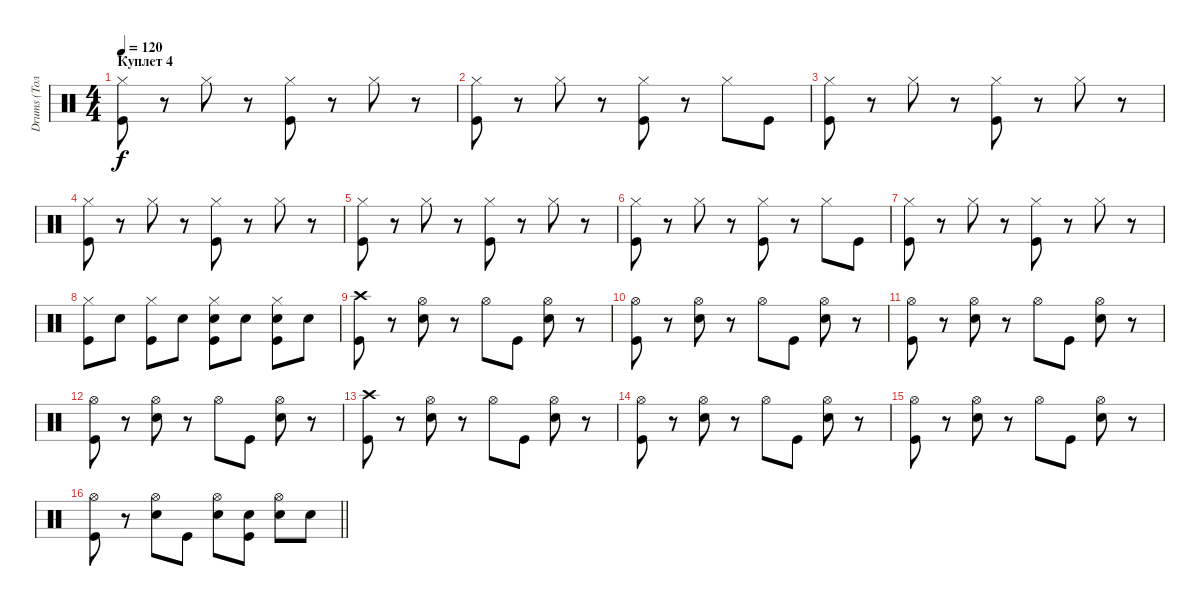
\track ("Drums (Толян)" "Drums (Тол") {instrument percussion}
\staff {score}
\articulation defaults
\ts (4 4)
\section ("" "Куплет 4")
\tempo 120
\clef neutral
\ks c
("Hi-Hat (closed)" "Kick (hit)").8{dy f} r.8 "Hi-Hat (closed)".8 r.8 ("Hi-Hat (closed)" "Kick (hit)").8 r.8 "Hi-Hat (closed)".8 r.8 |
("Hi-Hat (closed)" "Kick (hit)").8 r.8 "Hi-Hat (closed)".8 r.8 ("Hi-Hat (closed)" "Kick (hit)").8 r.8 "Hi-Hat (closed)".8 "Kick (hit)".8 |
("Hi-Hat (closed)" "Kick (hit)").8 r.8 "Hi-Hat (closed)".8 r.8 ("Hi-Hat (closed)" "Kick (hit)").8 r.8 "Hi-Hat (closed)".8 r.8 |
("Hi-Hat (closed)" "Kick (hit)").8 r.8 "Hi-Hat (closed)".8 r.8 ("Hi-Hat (closed)" "Kick (hit)").8 r.8 "Hi-Hat (closed)".8 r.8 |
("Hi-Hat (closed)" "Kick (hit)").8 r.8 "Hi-Hat (closed)".8 r.8 ("Hi-Hat (closed)" "Kick (hit)").8 r.8 "Hi-Hat (closed)".8 r.8 |
("Hi-Hat (closed)" "Kick (hit)").8 r.8 "Hi-Hat (closed)".8 r.8 ("Hi-Hat (closed)" "Kick (hit)").8 r.8 "Hi-Hat (closed)".8 "Kick (hit)".8 |
("Hi-Hat (closed)" "Kick (hit)").8 r.8 "Hi-Hat (closed)".8 r.8 ("Hi-Hat (closed)" "Kick (hit)").8 r.8 "Hi-Hat (closed)".8 r.8 |
("Hi-Hat (closed)" "Kick (hit)").8 "Electric Snare (hit)".8 ("Hi-Hat (closed)" "Kick (hit)").8 "Electric Snare (hit)".8 ("Hi-Hat (closed)" "Electric Snare (hit)" "Kick (hit)").8 "Electric Snare (hit)".8 ("Hi-Hat (closed)" "Electric Snare (hit)" "Kick (hit)").8 "Electric Snare (hit)".8 |
("Crash high (hit)" "Kick (hit)").8 r.8 ("Hi-Hat (open)" "Electric Snare (hit)").8 r.8 "Hi-Hat (open)".8 "Kick (hit)".8 ("Hi-Hat (open)" "Electric Snare (hit)").8 r.8 |
("Hi-Hat (open)" "Kick (hit)").8 r.8 ("Hi-Hat (open)" "Electric Snare (hit)").8 r.8 "Hi-Hat (open)".8 "Kick (hit)".8 ("Hi-Hat (open)" "Electric Snare (hit)").8 r.8 |
("Hi-Hat (open)" "Kick (hit)").8 r.8 ("Hi-Hat (open)" "Electric Snare (hit)").8 r.8 "Hi-Hat (open)".8 "Kick (hit)".8 ("Hi-Hat (open)" "Electric Snare (hit)").8 r.8 |
("Hi-Hat (open)" "Kick (hit)").8 r.8 ("Hi-Hat (open)" "Electric Snare (hit)").8 r.8 "Hi-Hat (open)".8 "Kick (hit)".8 ("Hi-Hat (open)" "Electric Snare (hit)").8 r.8 |
("Crash high (hit)" "Kick (hit)").8 r.8 ("Hi-Hat (open)" "Electric Snare (hit)").8 r.8 "Hi-Hat (open)".8 "Kick (hit)".8 ("Hi-Hat (open)" "Electric Snare (hit)").8 r.8 |
("Hi-Hat (open)" "Kick (hit)").8 r.8 ("Hi-Hat (open)" "Electric Snare (hit)").8 r.8 "Hi-Hat (open)".8 "Kick (hit)".8 ("Hi-Hat (open)" "Electric Snare (hit)").8 r.8 |
("Hi-Hat (open)" "Kick (hit)").8 r.8 ("Hi-Hat (open)" "Electric Snare (hit)").8 r.8 "Hi-Hat (open)".8 "Kick (hit)".8 ("Hi-Hat (open)" "Electric Snare (hit)").8 r.8 |
\barLineRight lightlight
("Hi-Hat (open)" "Kick (hit)").8 r.8 ("Hi-Hat (open)" "Electric Snare (hit)").8 "Kick (hit)".8 ("Hi-Hat (open)" "Electric Snare (hit)").8 ("Electric Snare (hit)" "Kick (hit)").8 ("Hi-Hat (open)" "Electric Snare (hit)").8 "Electric Snare (hit)".8
